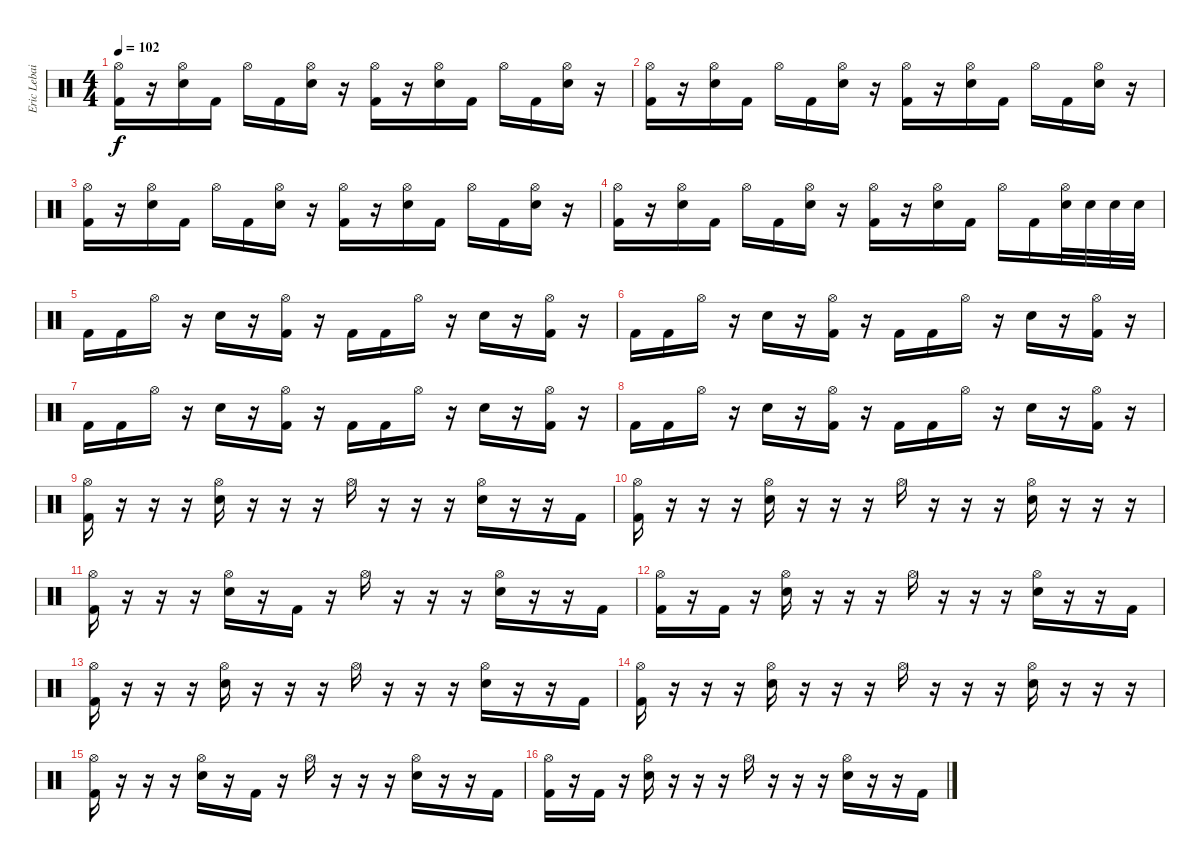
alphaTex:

\track ("Eric Lebailly" "Eric Lebai") {instrument percussion}
\staff {score}
\articulation defaults
\ts (4 4)
\tempo 102
\clef neutral
\ks c
("Hi-Hat (open)" "Kick (hit) 2").16{dy f} r.16 ("Hi-Hat (open)" "Snare (hit) 2").16 "Kick (hit) 2".16 "Hi-Hat (open)".16 "Kick (hit) 2".16 ("Hi-Hat (open)" "Snare (hit) 2").16 r.16 ("Hi-Hat (open)" "Kick (hit) 2").16 r.16 ("Hi-Hat (open)" "Snare (hit) 2").16 "Kick (hit) 2".16 "Hi-Hat (open)".16 "Kick (hit) 2".16 ("Hi-Hat (open)" "Snare (hit) 2").16 r.16 |
("Hi-Hat (open)" "Kick (hit) 2").16 r.16 ("Hi-Hat (open)" "Snare (hit) 2").16 "Kick (hit) 2".16 "Hi-Hat (open)".16 "Kick (hit) 2".16 ("Hi-Hat (open)" "Snare (hit) 2").16 r.16 ("Hi-Hat (open)" "Kick (hit) 2").16 r.16 ("Hi-Hat (open)" "Snare (hit) 2").16 "Kick (hit) 2".16 "Hi-Hat (open)".16 "Kick (hit) 2".16 ("Hi-Hat (open)" "Snare (hit) 2").16 r.16 |
("Hi-Hat (open)" "Kick (hit) 2").16 r.16 ("Hi-Hat (open)" "Snare (hit) 2").16 "Kick (hit) 2".16 "Hi-Hat (open)".16 "Kick (hit) 2".16 ("Hi-Hat (open)" "Snare (hit) 2").16 r.16 ("Hi-Hat (open)" "Kick (hit) 2").16 r.16 ("Hi-Hat (open)" "Snare (hit) 2").16 "Kick (hit) 2".16 "Hi-Hat (open)".16 "Kick (hit) 2".16 ("Hi-Hat (open)" "Snare (hit) 2").16 r.16 |
("Hi-Hat (open)" "Kick (hit) 2").16 r.16 ("Hi-Hat (open)" "Snare (hit) 2").16 "Kick (hit) 2".16 "Hi-Hat (open)".16 "Kick (hit) 2".16 ("Hi-Hat (open)" "Snare (hit) 2").16 r.16 ("Hi-Hat (open)" "Kick (hit) 2").16 r.16 ("Hi-Hat (open)" "Snare (hit) 2").16 "Kick (hit) 2".16 "Hi-Hat (open)".16 "Kick (hit) 2".16 ("Hi-Hat (open)" "Snare (hit) 2").32 "Snare (hit) 2".32 "Snare (hit) 2".32 "Snare (hit) 2".32 |
"Kick (hit) 2".16 "Kick (hit) 2".16 "Hi-Hat (open)".16 r.16 "Snare (hit) 2".16 r.16 ("Hi-Hat (open)" "Kick (hit) 2").16 r.16 "Kick (hit) 2".16 "Kick (hit) 2".16 "Hi-Hat (open)".16 r.16 "Snare (hit) 2".16 r.16 ("Hi-Hat (open)" "Kick (hit) 2").16 r.16 |
"Kick (hit) 2".16 "Kick (hit) 2".16 "Hi-Hat (open)".16 r.16 "Snare (hit) 2".16 r.16 ("Hi-Hat (open)" "Kick (hit) 2").16 r.16 "Kick (hit) 2".16 "Kick (hit) 2".16 "Hi-Hat (open)".16 r.16 "Snare (hit) 2".16 r.16 ("Hi-Hat (open)" "Kick (hit) 2").16 r.16 |
"Kick (hit) 2".16 "Kick (hit) 2".16 "Hi-Hat (open)".16 r.16 "Snare (hit) 2".16 r.16 ("Hi-Hat (open)" "Kick (hit) 2").16 r.16 "Kick (hit) 2".16 "Kick (hit) 2".16 "Hi-Hat (open)".16 r.16 "Snare (hit) 2".16 r.16 ("Hi-Hat (open)" "Kick (hit) 2").16 r.16 |
"Kick (hit) 2".16 "Kick (hit) 2".16 "Hi-Hat (open)".16 r.16 "Snare (hit) 2".16 r.16 ("Hi-Hat (open)" "Kick (hit) 2").16 r.16 "Kick (hit) 2".16 "Kick (hit) 2".16 "Hi-Hat (open)".16 r.16 "Snare (hit) 2".16 r.16 ("Hi-Hat (open)" "Kick (hit) 2").16 r.16 |
("Hi-Hat (open)" "Kick (hit) 2").16 r.16 r.16 r.16 ("Hi-Hat (open)" "Snare (hit) 2").16 r.16 r.16 r.16 "Hi-Hat (open)".16 r.16 r.16 r.16 ("Hi-Hat (open)" "Snare (hit) 2").16 r.16 r.16 "Kick (hit) 2".16 |
("Hi-Hat (open)" "Kick (hit) 2").16 r.16 r.16 r.16 ("Hi-Hat (open)" "Snare (hit) 2").16 r.16 r.16 r.16 "Hi-Hat (open)".16 r.16 r.16 r.16 ("Hi-Hat (open)" "Snare (hit) 2").16 r.16 r.16 r.16 |
("Hi-Hat (open)" "Kick (hit) 2").16 r.16 r.16 r.16 ("Hi-Hat (open)" "Snare (hit) 2").16 r.16 "Kick (hit) 2".16 r.16 "Hi-Hat (open)".16 r.16 r.16 r.16 ("Hi-Hat (open)" "Snare (hit) 2").16 r.16 r.16 "Kick (hit) 2".16 |
("Hi-Hat (open)" "Kick (hit) 2").16 r.16 "Kick (hit) 2".16 r.16 ("Hi-Hat (open)" "Snare (hit) 2").16 r.16 r.16 r.16 "Hi-Hat (open)".16 r.16 r.16 r.16 ("Hi-Hat (open)" "Snare (hit) 2").16 r.16 r.16 "Kick (hit) 2".16 |
("Hi-Hat (open)" "Kick (hit) 2").16 r.16 r.16 r.16 ("Hi-Hat (open)" "Snare (hit) 2").16 r.16 r.16 r.16 "Hi-Hat (open)".16 r.16 r.16 r.16 ("Hi-Hat (open)" "Snare (hit) 2").16 r.16 r.16 "Kick (hit) 2".16 |
("Hi-Hat (open)" "Kick (hit) 2").16 r.16 r.16 r.16 ("Hi-Hat (open)" "Snare (hit) 2").16 r.16 r.16 r.16 "Hi-Hat (open)".16 r.16 r.16 r.16 ("Hi-Hat (open)" "Snare (hit) 2").16 r.16 r.16 r.16 |
("Hi-Hat (open)" "Kick (hit) 2").16 r.16 r.16 r.16 ("Hi-Hat (open)" "Snare (hit) 2").16 r.16 "Kick (hit) 2".16 r.16 "Hi-Hat (open)".16 r.16 r.16 r.16 ("Hi-Hat (open)" "Snare (hit) 2").16 r.16 r.16 "Kick (hit) 2".16 |
("Hi-Hat (open)" "Kick (hit) 2").16 r.16 "Kick (hit) 2".16 r.16 ("Hi-Hat (open)" "Snare (hit) 2").16 r.16 r.16 r.16 "Hi-Hat (open)".16 r.16 r.16 r.16 ("Hi-Hat (open)" "Snare (hit) 2").16 r.16 r.16 "Kick (hit) 2".16
